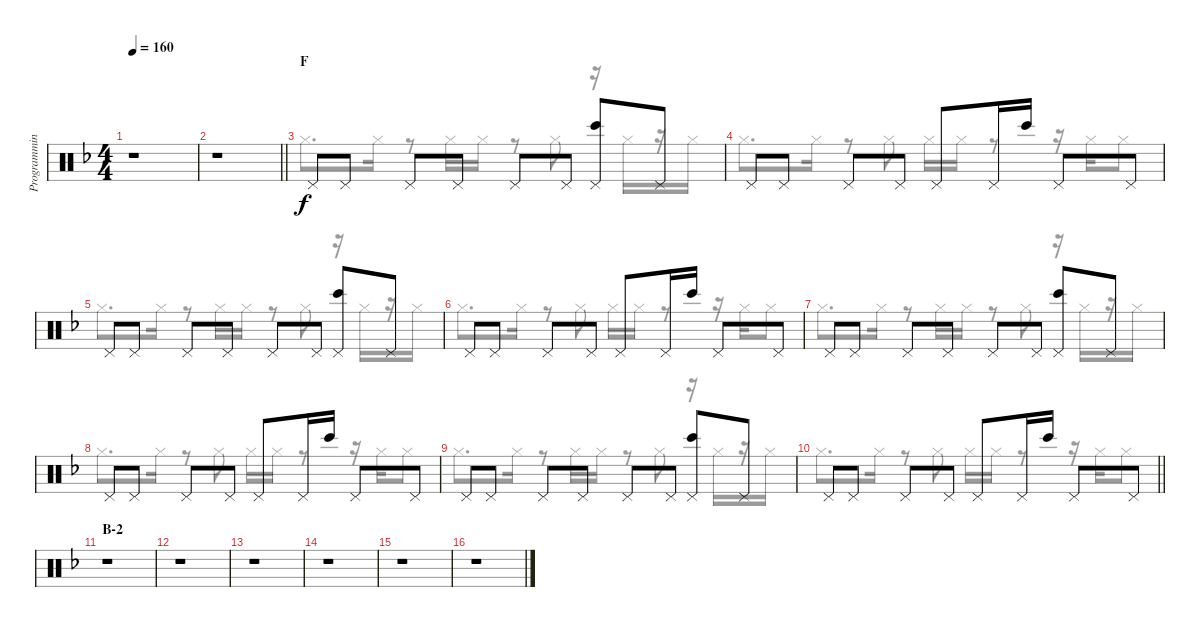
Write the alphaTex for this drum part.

\track ("Programming" "Programmin") {instrument percussion}
\staff {score}
\articulation defaults
\voice
\ts (4 4)
\tempo 160
\clef neutral
\ks f
r.1{dy f} |
\barLineRight lightlight
r.1 |
\section ("" "F")
"Pedal Hi-Hat (hit)".8 "Pedal Hi-Hat (hit)".8 "Pedal Hi-Hat (hit)".8 "Pedal Hi-Hat (hit)".8 "Pedal Hi-Hat (hit)".8 "Pedal Hi-Hat (hit)".8 ("Pedal Hi-Hat (hit)" "Bongo High (hit)").8 "Pedal Hi-Hat (hit)".8 |
"Pedal Hi-Hat (hit)".8 "Pedal Hi-Hat (hit)".8 "Pedal Hi-Hat (hit)".8 "Pedal Hi-Hat (hit)".8 "Pedal Hi-Hat (hit)".8 "Pedal Hi-Hat (hit)".16 "Bongo High (hit)".16 "Pedal Hi-Hat (hit)".8 "Pedal Hi-Hat (hit)".8 |
"Pedal Hi-Hat (hit)".8 "Pedal Hi-Hat (hit)".8 "Pedal Hi-Hat (hit)".8 "Pedal Hi-Hat (hit)".8 "Pedal Hi-Hat (hit)".8 "Pedal Hi-Hat (hit)".8 ("Pedal Hi-Hat (hit)" "Bongo High (hit)").8 "Pedal Hi-Hat (hit)".8 |
"Pedal Hi-Hat (hit)".8 "Pedal Hi-Hat (hit)".8 "Pedal Hi-Hat (hit)".8 "Pedal Hi-Hat (hit)".8 "Pedal Hi-Hat (hit)".8 "Pedal Hi-Hat (hit)".16 "Bongo High (hit)".16 "Pedal Hi-Hat (hit)".8 "Pedal Hi-Hat (hit)".8 |
"Pedal Hi-Hat (hit)".8 "Pedal Hi-Hat (hit)".8 "Pedal Hi-Hat (hit)".8 "Pedal Hi-Hat (hit)".8 "Pedal Hi-Hat (hit)".8 "Pedal Hi-Hat (hit)".8 ("Pedal Hi-Hat (hit)" "Bongo High (hit)").8 "Pedal Hi-Hat (hit)".8 |
"Pedal Hi-Hat (hit)".8 "Pedal Hi-Hat (hit)".8 "Pedal Hi-Hat (hit)".8 "Pedal Hi-Hat (hit)".8 "Pedal Hi-Hat (hit)".8 "Pedal Hi-Hat (hit)".16 "Bongo High (hit)".16 "Pedal Hi-Hat (hit)".8 "Pedal Hi-Hat (hit)".8 |
"Pedal Hi-Hat (hit)".8 "Pedal Hi-Hat (hit)".8 "Pedal Hi-Hat (hit)".8 "Pedal Hi-Hat (hit)".8 "Pedal Hi-Hat (hit)".8 "Pedal Hi-Hat (hit)".8 ("Pedal Hi-Hat (hit)" "Bongo High (hit)").8 "Pedal Hi-Hat (hit)".8 |
\barLineRight lightlight "Pedal Hi-Hat (hit)".8 "Pedal Hi-Hat (hit)".8 "Pedal Hi-Hat (hit)".8 "Pedal Hi-Hat (hit)".8 "Pedal Hi-Hat (hit)".8 "Pedal Hi-Hat (hit)".16 "Bongo High (hit)".16 "Pedal Hi-Hat (hit)".8 "Pedal Hi-Hat (hit)".8
|
\section ("" "B-2")
r.1 |
r.1 |
r.1 |
r.1 |
r.1 |
r.1
\voice
\clef neutral
\ottava regular
\simile none
\ks f
r.1{dy f} |
\barLineRight lightlight
r.1 |
"Hi-Hat (closed)".8{d} "Hi-Hat (closed)".16 r.8 "Hi-Hat (closed)".16 "Hi-Hat (closed)".16 r.8 "Hi-Hat (closed)".8 r.16 "Hi-Hat (closed)".16 r.16 "Hi-Hat (closed)".16 |
"Hi-Hat (closed)".8{d} "Hi-Hat (closed)".16 r.8 "Hi-Hat (closed)".8 "Hi-Hat (closed)".16 "Hi-Hat (closed)".16 r.8 r.16 "Hi-Hat (closed)".16 "Hi-Hat (closed)".8 |
"Hi-Hat (closed)".8{d} "Hi-Hat (closed)".16 r.8 "Hi-Hat (closed)".16 "Hi-Hat (closed)".16 r.8 "Hi-Hat (closed)".8 r.16 "Hi-Hat (closed)".16 r.16 "Hi-Hat (closed)".16 |
"Hi-Hat (closed)".8{d} "Hi-Hat (closed)".16 r.8 "Hi-Hat (closed)".8 "Hi-Hat (closed)".16 "Hi-Hat (closed)".16 r.8 r.16 "Hi-Hat (closed)".16 "Hi-Hat (closed)".8 |
"Hi-Hat (closed)".8{d} "Hi-Hat (closed)".16 r.8 "Hi-Hat (closed)".16 "Hi-Hat (closed)".16 r.8 "Hi-Hat (closed)".8 r.16 "Hi-Hat (closed)".16 r.16 "Hi-Hat (closed)".16 |
"Hi-Hat (closed)".8{d} "Hi-Hat (closed)".16 r.8 "Hi-Hat (closed)".8 "Hi-Hat (closed)".16 "Hi-Hat (closed)".16 r.8 r.16 "Hi-Hat (closed)".16 "Hi-Hat (closed)".8 |
"Hi-Hat (closed)".8{d} "Hi-Hat (closed)".16 r.8 "Hi-Hat (closed)".16 "Hi-Hat (closed)".16 r.8 "Hi-Hat (closed)".8 r.16 "Hi-Hat (closed)".16 r.16 "Hi-Hat (closed)".16 |
\barLineRight lightlight "Hi-Hat (closed)".8{d} "Hi-Hat (closed)".16
r.8 "Hi-Hat (closed)".8 "Hi-Hat (closed)".16 "Hi-Hat (closed)".16 r.8 r.16 "Hi-Hat (closed)".16 "Hi-Hat (closed)".8 |
r.1 |
r.1 |
r.1 |
r.1 |
r.1 |
r.1
